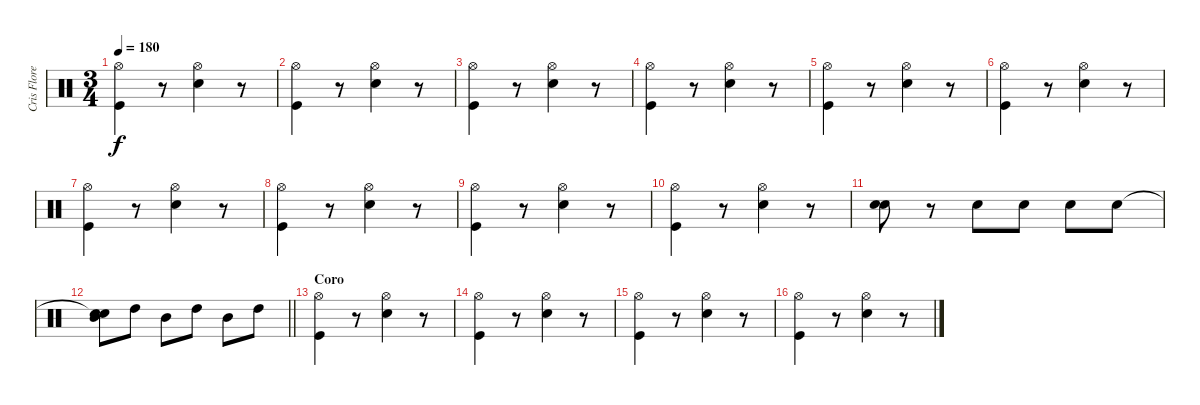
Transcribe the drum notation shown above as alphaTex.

\track ("Cris Flores" "Cris Flore") {instrument percussion}
\staff {score}
\articulation defaults
\ts (3 4)
\tempo 180
\clef neutral
\ks c
("Kick (hit)" "Hi-Hat (open)").4{dy f} r.8 ("Snare (hit) 2" "Hi-Hat (open)").4 r.8 |
("Kick (hit)" "Hi-Hat (open)").4 r.8 ("Snare (hit) 2" "Hi-Hat (open)").4 r.8 |
("Kick (hit)" "Hi-Hat (open)").4 r.8 ("Snare (hit) 2" "Hi-Hat (open)").4 r.8 |
("Kick (hit)" "Hi-Hat (open)").4 r.8 ("Snare (hit) 2" "Hi-Hat (open)").4 r.8 |
("Kick (hit)" "Hi-Hat (open)").4 r.8 ("Snare (hit) 2" "Hi-Hat (open)").4 r.8 |
("Kick (hit)" "Hi-Hat (open)").4 r.8 ("Snare (hit) 2" "Hi-Hat (open)").4 r.8 |
("Kick (hit)" "Hi-Hat (open)").4 r.8 ("Snare (hit) 2" "Hi-Hat (open)").4 r.8 |
("Kick (hit)" "Hi-Hat (open)").4 r.8 ("Snare (hit) 2" "Hi-Hat (open)").4 r.8 |
("Kick (hit)" "Hi-Hat (open)").4 r.8 ("Snare (hit) 2" "Hi-Hat (open)").4 r.8 |
("Kick (hit)" "Hi-Hat (open)").4 r.8 ("Snare (hit) 2" "Hi-Hat (open)").4 r.8 |
("Electric Snare (hit)" "Snare (hit) 2").8 r.8 "Snare (hit) 2".8 "Snare (hit) 2".8 "Snare (hit) 2".8 "Snare (hit) 2".8 |
\barLineRight lightlight
("Snare (hit)"{t} "Mid Tom (hit)" "Snare (hit)").8 "High Tom (hit)".8 "Mid Tom (hit)".8 "High Tom (hit)".8 "Mid Tom (hit)".8 "High Tom (hit)".8 |
\section ("" "Coro")
("Kick (hit)" "Hi-Hat (open)").4 r.8 ("Snare (hit) 2" "Hi-Hat (open)").4 r.8 |
("Kick (hit)" "Hi-Hat (open)").4 r.8 ("Snare (hit) 2" "Hi-Hat (open)").4 r.8 |
("Kick (hit)" "Hi-Hat (open)").4 r.8 ("Snare (hit) 2" "Hi-Hat (open)").4 r.8 |
("Kick (hit)" "Hi-Hat (open)").4 r.8 ("Snare (hit) 2" "Hi-Hat (open)").4 r.8
